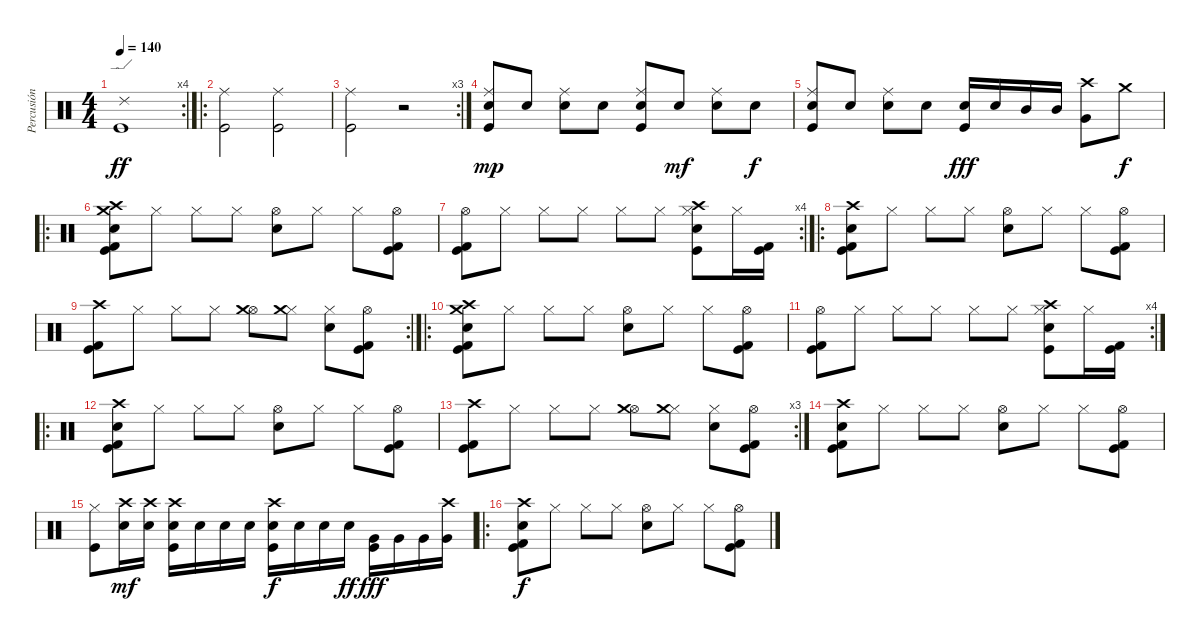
\track ("Percusión" "Percusión") {instrument percussion}
\staff {score}
\articulation defaults
\rc 4
\ts (4 4)
\tempo 140
\clef neutral
\ks c
("Ride (edge) 2" "Kick (hit)").1{dy ff} |
\ro
("Ride (middle)" "Kick (hit)").2 ("Ride (middle)" "Kick (hit)").2 |
\rc 3
("Ride (middle)" "Kick (hit)").2 r.2 |
("Ride (middle)" "Electric Snare (hit)" "Kick (hit)").8{dy mp} "Electric Snare (hit)".8 ("Ride (middle)" "Electric Snare (hit)").8 "Electric Snare (hit)".8 ("Ride (middle)" "Electric Snare (hit)" "Kick (hit)").8 "Electric Snare (hit)".8{dy mf} ("Ride (middle)" "Electric Snare (hit)").8 "Electric Snare (hit)".8{dy f} |
("Ride (middle)" "Electric Snare (hit)" "Kick (hit)").8 "Electric Snare (hit)".8 ("Ride (middle)" "Electric Snare (hit)").8 "Electric Snare (hit)".8 ("Electric Snare (hit)" "Kick (hit)").16{dy fff} "Electric Snare (hit)".16 "Mid Tom (hit)".16 "Mid Tom (hit)".16 ("Crash high (hit)" "Very Low Tom (hit)").8 "Crash medium (hit)".8{dy f} |
\ro
("Crash medium (hit)" "Crash high (hit)" "Electric Snare (hit)" "Kick (hit)" "Kick (hit) 2").8 "Hi-Hat (closed)".8 "Hi-Hat (closed)".8 "Hi-Hat (closed)".8 ("Hi-Hat (open)" "Electric Snare (hit)").8 "Hi-Hat (closed)".8 "Hi-Hat (closed)".8 ("Hi-Hat (open)" "Kick (hit) 2" "Kick (hit)").8 |
\rc 4
("Hi-Hat (open)" "Kick (hit) 2" "Kick (hit)").8 "Hi-Hat (closed)".8 "Hi-Hat (closed)".8 "Hi-Hat (closed)".8 "Hi-Hat (closed)".8 "Hi-Hat (closed)".8 ("Hi-Hat (closed)" "Electric Snare (hit)" "Crash high (hit)" "Kick (hit)").8 "Hi-Hat (closed)".16 ("Kick (hit) 2" "Kick (hit)").16 |
\ro
("Crash high (hit)" "Electric Snare (hit)" "Kick (hit)" "Kick (hit) 2").8 "Hi-Hat (closed)".8 "Hi-Hat (closed)".8 "Hi-Hat (closed)".8 ("Hi-Hat (open)" "Electric Snare (hit)").8 "Hi-Hat (closed)".8 "Hi-Hat (closed)".8 ("Hi-Hat (open)" "Kick (hit) 2" "Kick (hit)").8 |
\rc 2
("Crash high (hit)" "Kick (hit)" "Kick (hit) 2").8 "Hi-Hat (closed)".8 "Hi-Hat (closed)".8 "Hi-Hat (closed)".8 ("Hi-Hat (open)" "Crash medium (hit)").8 ("Hi-Hat (closed)" "Crash medium (hit)").8 ("Hi-Hat (closed)" "Electric Snare (hit)").8 ("Hi-Hat (open)" "Kick (hit) 2" "Kick (hit)").8 |
\ro
("Crash medium (hit)" "Crash high (hit)" "Electric Snare (hit)" "Kick (hit)" "Kick (hit) 2").8 "Hi-Hat (closed)".8 "Hi-Hat (closed)".8 "Hi-Hat (closed)".8 ("Hi-Hat (open)" "Electric Snare (hit)").8 "Hi-Hat (closed)".8 "Hi-Hat (closed)".8 ("Hi-Hat (open)" "Kick (hit) 2" "Kick (hit)").8 |
\rc 4
("Hi-Hat (open)" "Kick (hit) 2" "Kick (hit)").8 "Hi-Hat (closed)".8 "Hi-Hat (closed)".8 "Hi-Hat (closed)".8 "Hi-Hat (closed)".8 "Hi-Hat (closed)".8 ("Hi-Hat (closed)" "Electric Snare (hit)" "Crash high (hit)" "Kick (hit)").8 "Hi-Hat (closed)".16 ("Kick (hit) 2" "Kick (hit)").16 |
\ro
("Crash high (hit)" "Electric Snare (hit)" "Kick (hit)" "Kick (hit) 2").8 "Hi-Hat (closed)".8 "Hi-Hat (closed)".8 "Hi-Hat (closed)".8 ("Hi-Hat (open)" "Electric Snare (hit)").8 "Hi-Hat (closed)".8 "Hi-Hat (closed)".8 ("Hi-Hat (open)" "Kick (hit) 2" "Kick (hit)").8 |
\rc 3
("Crash high (hit)" "Kick (hit)" "Kick (hit) 2").8 "Hi-Hat (closed)".8 "Hi-Hat (closed)".8 "Hi-Hat (closed)".8 ("Hi-Hat (open)" "Crash medium (hit)").8 ("Hi-Hat (closed)" "Crash medium (hit)").8 ("Hi-Hat (closed)" "Electric Snare (hit)").8 ("Hi-Hat (open)" "Kick (hit) 2" "Kick (hit)").8 |
("Crash high (hit)" "Electric Snare (hit)" "Kick (hit)" "Kick (hit) 2").8 "Hi-Hat (closed)".8 "Hi-Hat (closed)".8 "Hi-Hat (closed)".8 ("Hi-Hat (open)" "Electric Snare (hit)").8 "Hi-Hat (closed)".8 "Hi-Hat (closed)".8 ("Hi-Hat (open)" "Kick (hit) 2" "Kick (hit)").8 |
("Hi-Hat (closed)" "Kick (hit)").8 ("Crash high (hit)" "Electric Snare (hit)").16{dy mf} ("Crash high (hit)" "Electric Snare (hit)").16 ("Crash high (hit)" "Electric Snare (hit)" "Kick (hit)").16 "Electric Snare (hit)".16 "Electric Snare (hit)".16 "Electric Snare (hit)".16 ("Crash high (hit)" "Electric Snare (hit)" "Kick (hit)").16{dy f} "Electric Snare (hit)".16 "Electric Snare (hit)".16 "Electric Snare (hit)".16{dy ff} ("Very Low Tom (hit)" "Kick (hit)").16{dy fff} "Very Low Tom (hit)".16 "Very Low Tom (hit)".16 ("Crash high (hit)" "Very Low Tom (hit)").16 |
\ro
("Crash high (hit)" "Electric Snare (hit)" "Kick (hit)" "Kick (hit) 2").8{dy f} "Hi-Hat (closed)".8 "Hi-Hat (closed)".8 "Hi-Hat (closed)".8 ("Hi-Hat (open)" "Electric Snare (hit)").8 "Hi-Hat (closed)".8 "Hi-Hat (closed)".8 ("Hi-Hat (open)" "Kick (hit) 2" "Kick (hit)").8
